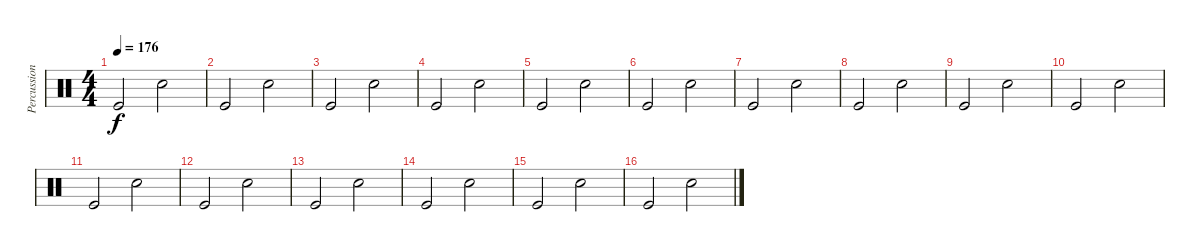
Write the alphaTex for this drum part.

\track ("Percussions" "Percussion") {instrument percussion}
\staff {score}
\articulation defaults
\ts (4 4)
\tempo 176
\clef neutral
\ks c "Kick (hit)".2{dy f} "Snare (hit) 2".2
|
"Kick (hit)".2 "Snare (hit) 2".2 |
"Kick (hit)".2 "Snare (hit) 2".2 |
"Kick (hit)".2 "Snare (hit) 2".2 |
"Kick (hit)".2 "Snare (hit) 2".2 |
"Kick (hit)".2 "Snare (hit) 2".2 |
"Kick (hit)".2 "Snare (hit) 2".2 |
"Kick (hit)".2 "Snare (hit) 2".2 |
"Kick (hit)".2 "Snare (hit) 2".2 |
"Kick (hit)".2 "Snare (hit) 2".2 |
"Kick (hit)".2 "Snare (hit) 2".2 |
"Kick (hit)".2 "Snare (hit) 2".2 |
"Kick (hit)".2 "Snare (hit) 2".2 |
"Kick (hit)".2 "Snare (hit) 2".2 |
"Kick (hit)".2 "Snare (hit) 2".2 |
"Kick (hit)".2 "Snare (hit) 2".2
